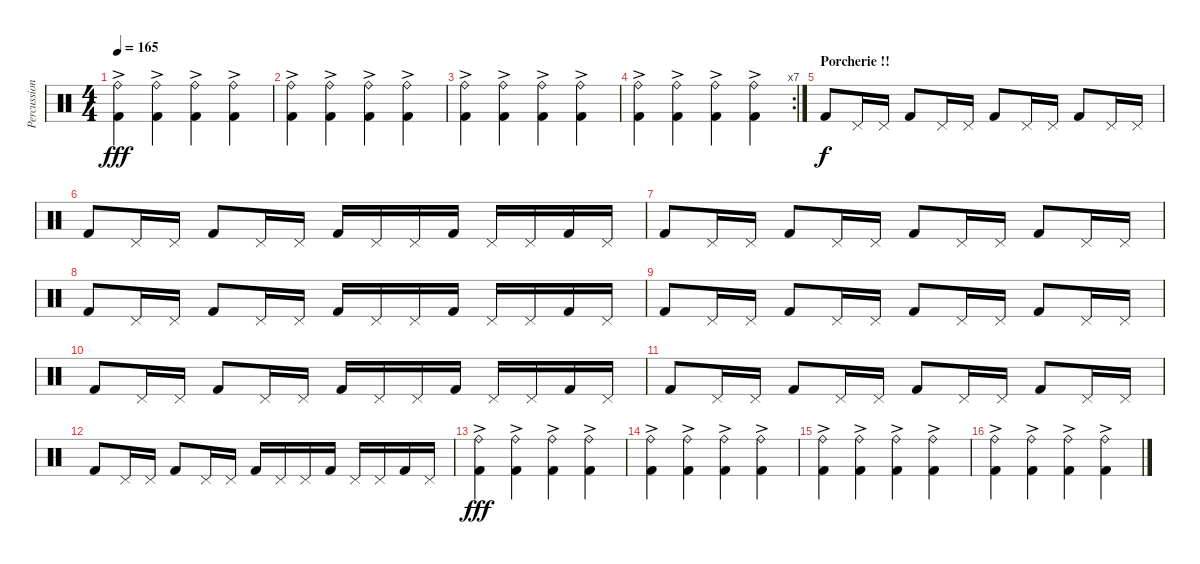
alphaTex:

\track ("Percussions" "Percussion") {instrument percussion}
\staff {score}
\articulation defaults
\ts (4 4)
\tempo 165
\clef neutral
\ks c
("Ride (bell)"{ac} "Kick (hit) 2").4{dy fff} ("Ride (bell)"{ac} "Kick (hit) 2").4 ("Ride (bell)"{ac} "Kick (hit) 2").4 ("Ride (bell)"{ac} "Kick (hit) 2").4 |
("Ride (bell)"{ac} "Kick (hit) 2").4 ("Ride (bell)"{ac} "Kick (hit) 2").4 ("Ride (bell)"{ac} "Kick (hit) 2").4 ("Ride (bell)"{ac} "Kick (hit) 2").4 |
("Ride (bell)"{ac} "Kick (hit) 2").4 ("Ride (bell)"{ac} "Kick (hit) 2").4 ("Ride (bell)"{ac} "Kick (hit) 2").4 ("Ride (bell)"{ac} "Kick (hit) 2").4 |
\rc 7
("Ride (bell)"{ac} "Kick (hit) 2").4 ("Ride (bell)"{ac} "Kick (hit) 2").4 ("Ride (bell)"{ac} "Kick (hit) 2").4 ("Ride (bell)"{ac} "Kick (hit) 2").4 |
\section ("" "Porcherie !!")
"Kick (hit) 2".8{dy f} "Pedal Hi-Hat (hit)".16 "Pedal Hi-Hat (hit)".16 "Kick (hit) 2".8 "Pedal Hi-Hat (hit)".16 "Pedal Hi-Hat (hit)".16 "Kick (hit) 2".8 "Pedal Hi-Hat (hit)".16 "Pedal Hi-Hat (hit)".16 "Kick (hit) 2".8 "Pedal Hi-Hat (hit)".16 "Pedal Hi-Hat (hit)".16 |
"Kick (hit) 2".8 "Pedal Hi-Hat (hit)".16 "Pedal Hi-Hat (hit)".16 "Kick (hit) 2".8 "Pedal Hi-Hat (hit)".16 "Pedal Hi-Hat (hit)".16 "Kick (hit) 2".16 "Pedal Hi-Hat (hit)".16 "Pedal Hi-Hat (hit)".16 "Kick (hit) 2".16 "Pedal Hi-Hat (hit)".16 "Pedal Hi-Hat (hit)".16 "Kick (hit) 2".16 "Pedal Hi-Hat (hit)".16 |
"Kick (hit) 2".8 "Pedal Hi-Hat (hit)".16 "Pedal Hi-Hat (hit)".16 "Kick (hit) 2".8 "Pedal Hi-Hat (hit)".16 "Pedal Hi-Hat (hit)".16 "Kick (hit) 2".8 "Pedal Hi-Hat (hit)".16 "Pedal Hi-Hat (hit)".16 "Kick (hit) 2".8 "Pedal Hi-Hat (hit)".16 "Pedal Hi-Hat (hit)".16 |
"Kick (hit) 2".8 "Pedal Hi-Hat (hit)".16 "Pedal Hi-Hat (hit)".16 "Kick (hit) 2".8 "Pedal Hi-Hat (hit)".16 "Pedal Hi-Hat (hit)".16 "Kick (hit) 2".16 "Pedal Hi-Hat (hit)".16 "Pedal Hi-Hat (hit)".16 "Kick (hit) 2".16 "Pedal Hi-Hat (hit)".16 "Pedal Hi-Hat (hit)".16 "Kick (hit) 2".16 "Pedal Hi-Hat (hit)".16 |
"Kick (hit) 2".8 "Pedal Hi-Hat (hit)".16 "Pedal Hi-Hat (hit)".16 "Kick (hit) 2".8 "Pedal Hi-Hat (hit)".16 "Pedal Hi-Hat (hit)".16 "Kick (hit) 2".8 "Pedal Hi-Hat (hit)".16 "Pedal Hi-Hat (hit)".16 "Kick (hit) 2".8 "Pedal Hi-Hat (hit)".16 "Pedal Hi-Hat (hit)".16 |
"Kick (hit) 2".8 "Pedal Hi-Hat (hit)".16 "Pedal Hi-Hat (hit)".16 "Kick (hit) 2".8 "Pedal Hi-Hat (hit)".16 "Pedal Hi-Hat (hit)".16 "Kick (hit) 2".16 "Pedal Hi-Hat (hit)".16 "Pedal Hi-Hat (hit)".16 "Kick (hit) 2".16 "Pedal Hi-Hat (hit)".16 "Pedal Hi-Hat (hit)".16 "Kick (hit) 2".16 "Pedal Hi-Hat (hit)".16 |
"Kick (hit) 2".8 "Pedal Hi-Hat (hit)".16 "Pedal Hi-Hat (hit)".16 "Kick (hit) 2".8 "Pedal Hi-Hat (hit)".16 "Pedal Hi-Hat (hit)".16 "Kick (hit) 2".8 "Pedal Hi-Hat (hit)".16 "Pedal Hi-Hat (hit)".16 "Kick (hit) 2".8 "Pedal Hi-Hat (hit)".16 "Pedal Hi-Hat (hit)".16 |
"Kick (hit) 2".8 "Pedal Hi-Hat (hit)".16 "Pedal Hi-Hat (hit)".16 "Kick (hit) 2".8 "Pedal Hi-Hat (hit)".16 "Pedal Hi-Hat (hit)".16 "Kick (hit) 2".16 "Pedal Hi-Hat (hit)".16 "Pedal Hi-Hat (hit)".16 "Kick (hit) 2".16 "Pedal Hi-Hat (hit)".16 "Pedal Hi-Hat (hit)".16 "Kick (hit) 2".16 "Pedal Hi-Hat (hit)".16 |
("Ride (bell)"{ac} "Kick (hit) 2").4{dy fff} ("Ride (bell)"{ac} "Kick (hit) 2").4 ("Ride (bell)"{ac} "Kick (hit) 2").4 ("Ride (bell)"{ac} "Kick (hit) 2").4 |
("Ride (bell)"{ac} "Kick (hit) 2").4 ("Ride (bell)"{ac} "Kick (hit) 2").4 ("Ride (bell)"{ac} "Kick (hit) 2").4 ("Ride (bell)"{ac} "Kick (hit) 2").4 |
("Ride (bell)"{ac} "Kick (hit) 2").4 ("Ride (bell)"{ac} "Kick (hit) 2").4 ("Ride (bell)"{ac} "Kick (hit) 2").4 ("Ride (bell)"{ac} "Kick (hit) 2").4 |
("Ride (bell)"{ac} "Kick (hit) 2").4 ("Ride (bell)"{ac} "Kick (hit) 2").4 ("Ride (bell)"{ac} "Kick (hit) 2").4 ("Ride (bell)"{ac} "Kick (hit) 2").4
